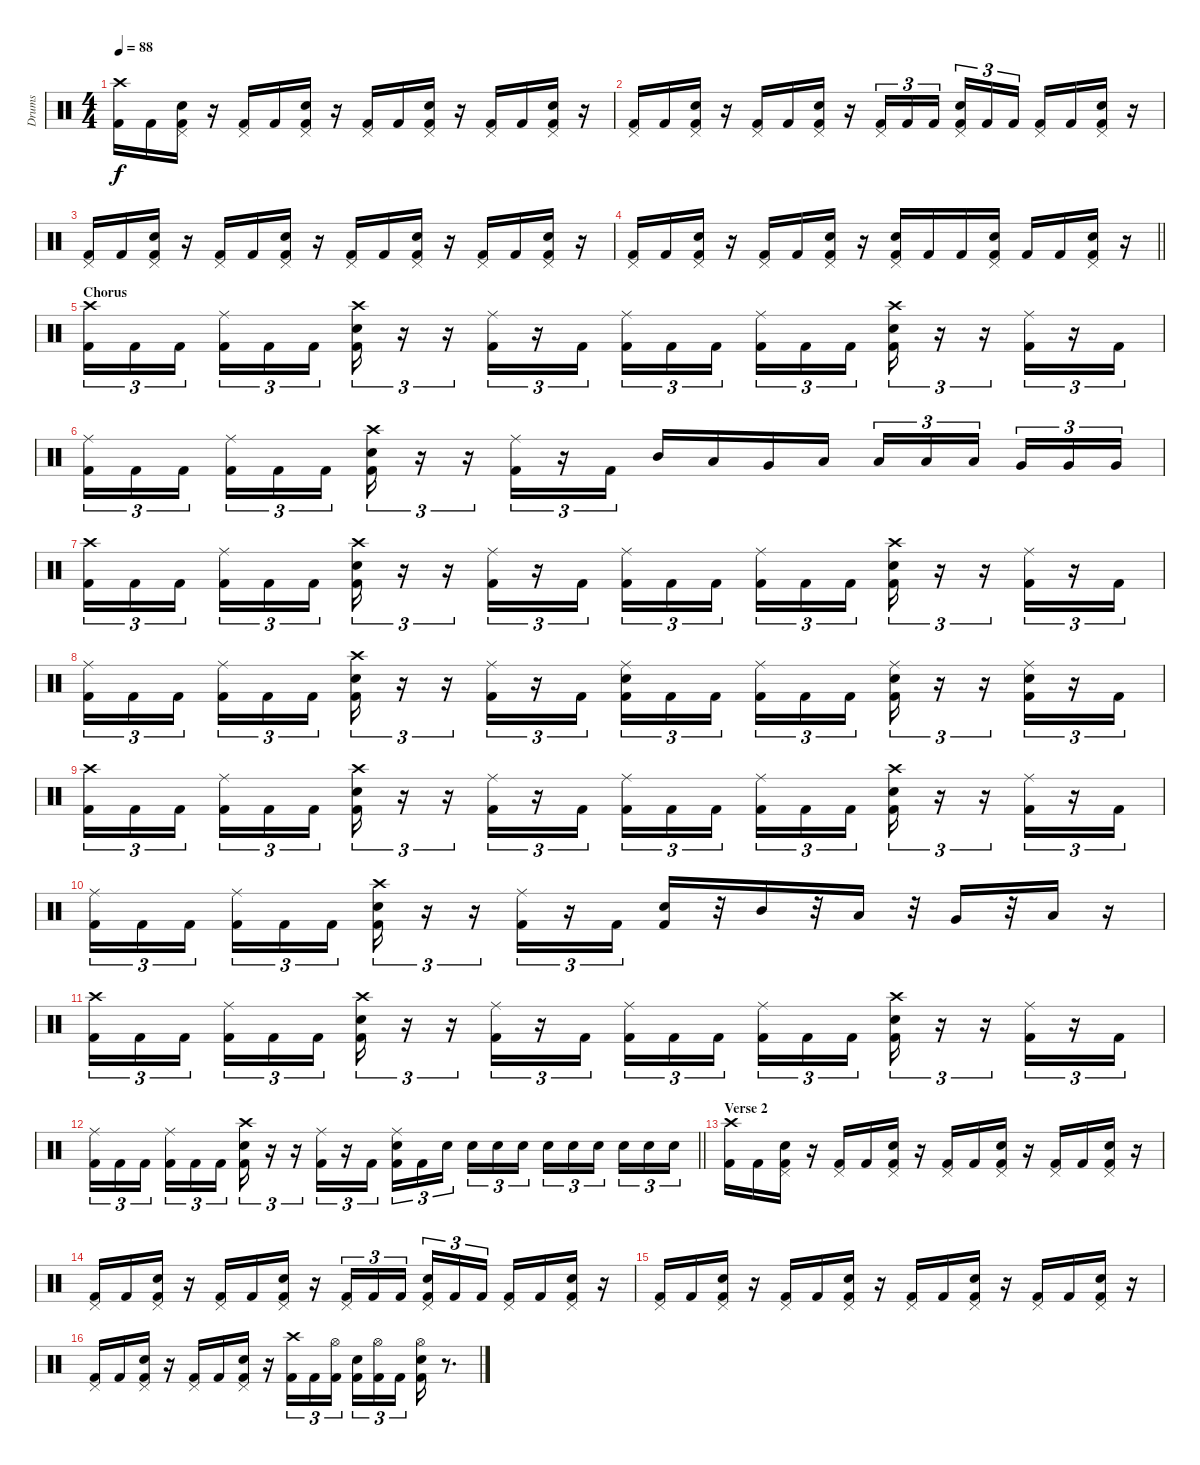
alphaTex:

\track ("Drums" "Drums") {instrument percussion}
\staff {score}
\articulation defaults
\ts (4 4)
\tempo 88
\clef neutral
\ks c
("Crash high (hit)" "Kick (hit) 2").16{dy f} "Kick (hit) 2".16 ("Pedal Hi-Hat (hit)" "Snare (hit) 2" "Kick (hit) 2").16 r.16 ("Pedal Hi-Hat (hit)" "Kick (hit) 2").16 "Kick (hit) 2".16 ("Pedal Hi-Hat (hit)" "Snare (hit) 2" "Kick (hit) 2").16 r.16 ("Pedal Hi-Hat (hit)" "Kick (hit) 2").16 "Kick (hit) 2".16 ("Pedal Hi-Hat (hit)" "Snare (hit) 2" "Kick (hit) 2").16 r.16 ("Pedal Hi-Hat (hit)" "Kick (hit) 2").16 "Kick (hit) 2".16 ("Pedal Hi-Hat (hit)" "Snare (hit) 2" "Kick (hit) 2").16 r.16 |
("Pedal Hi-Hat (hit)" "Kick (hit) 2").16 "Kick (hit) 2".16 ("Pedal Hi-Hat (hit)" "Snare (hit) 2" "Kick (hit) 2").16 r.16 ("Pedal Hi-Hat (hit)" "Kick (hit) 2").16 "Kick (hit) 2".16 ("Pedal Hi-Hat (hit)" "Snare (hit) 2" "Kick (hit) 2").16 r.16 ("Pedal Hi-Hat (hit)" "Kick (hit) 2").16{tu (3 2)} "Kick (hit) 2".16{tu (3 2)} "Kick (hit) 2".16{tu (3 2) beam splitsecondary} ("Pedal Hi-Hat (hit)" "Snare (hit) 2" "Kick (hit) 2").16{tu (3 2)} "Kick (hit) 2".16{tu (3 2)} "Kick (hit) 2".16{tu (3 2)} ("Pedal Hi-Hat (hit)" "Kick (hit) 2").16 "Kick (hit) 2".16 ("Pedal Hi-Hat (hit)" "Snare (hit) 2" "Kick (hit) 2").16 r.16 |
("Pedal Hi-Hat (hit)" "Kick (hit) 2").16 "Kick (hit) 2".16 ("Pedal Hi-Hat (hit)" "Snare (hit) 2" "Kick (hit) 2").16 r.16 ("Pedal Hi-Hat (hit)" "Kick (hit) 2").16 "Kick (hit) 2".16 ("Pedal Hi-Hat (hit)" "Snare (hit) 2" "Kick (hit) 2").16 r.16 ("Pedal Hi-Hat (hit)" "Kick (hit) 2").16 "Kick (hit) 2".16 ("Pedal Hi-Hat (hit)" "Snare (hit) 2" "Kick (hit) 2").16 r.16 ("Pedal Hi-Hat (hit)" "Kick (hit) 2").16 "Kick (hit) 2".16 ("Pedal Hi-Hat (hit)" "Snare (hit) 2" "Kick (hit) 2").16 r.16 |
\barLineRight lightlight
("Pedal Hi-Hat (hit)" "Kick (hit) 2").16 "Kick (hit) 2".16 ("Pedal Hi-Hat (hit)" "Snare (hit) 2" "Kick (hit) 2").16 r.16 ("Pedal Hi-Hat (hit)" "Kick (hit) 2").16 "Kick (hit) 2".16 ("Pedal Hi-Hat (hit)" "Snare (hit) 2" "Kick (hit) 2").16 r.16 ("Pedal Hi-Hat (hit)" "Snare (hit) 2" "Kick (hit) 2").16 "Kick (hit) 2".16 "Kick (hit) 2".16 ("Pedal Hi-Hat (hit)" "Snare (hit) 2" "Kick (hit) 2").16 "Kick (hit) 2".16 "Kick (hit) 2".16 ("Pedal Hi-Hat (hit)" "Snare (hit) 2" "Kick (hit) 2").16 r.16 |
\section ("" "Chorus")
("Crash high (hit)" "Kick (hit) 2").16{tu (3 2)} "Kick (hit) 2".16{tu (3 2)} "Kick (hit) 2".16{tu (3 2) beam splitsecondary} ("Ride (middle)" "Kick (hit) 2").16{tu (3 2)} "Kick (hit) 2".16{tu (3 2)} "Kick (hit) 2".16{tu (3 2)} ("Crash high (hit)" "Snare (hit) 2" "Kick (hit) 2").16{tu (3 2)} r.16{tu (3 2)} r.16{tu (3 2)} ("Ride (middle)" "Kick (hit) 2").16{tu (3 2)} r.16{tu (3 2)} "Kick (hit) 2".16{tu (3 2)} ("Ride (middle)" "Kick (hit) 2").16{tu (3 2)} "Kick (hit) 2".16{tu (3 2)} "Kick (hit) 2".16{tu (3 2) beam splitsecondary} ("Ride (middle)" "Kick (hit) 2").16{tu (3 2)} "Kick (hit) 2".16{tu (3 2)} "Kick (hit) 2".16{tu (3 2)} ("Crash high (hit)" "Snare (hit) 2" "Kick (hit) 2").16{tu (3 2)} r.16{tu (3 2)} r.16{tu (3 2)} ("Ride (middle)" "Kick (hit) 2").16{tu (3 2)} r.16{tu (3 2)} "Kick (hit) 2".16{tu (3 2)} |
("Ride (middle)" "Kick (hit) 2").16{tu (3 2)} "Kick (hit) 2".16{tu (3 2)} "Kick (hit) 2".16{tu (3 2) beam splitsecondary} ("Ride (middle)" "Kick (hit) 2").16{tu (3 2)} "Kick (hit) 2".16{tu (3 2)} "Kick (hit) 2".16{tu (3 2)} ("Crash high (hit)" "Snare (hit) 2" "Kick (hit) 2").16{tu (3 2)} r.16{tu (3 2)} r.16{tu (3 2)} ("Ride (middle)" "Kick (hit) 2").16{tu (3 2)} r.16{tu (3 2)} "Kick (hit) 2".16{tu (3 2)} "Mid Tom (hit)".16 "Low Tom (hit)".16 "Very Low Tom (hit)".16 "Low Tom (hit)".16 "Low Tom (hit)".16{tu (3 2)} "Low Tom (hit)".16{tu (3 2)} "Low Tom (hit)".16{tu (3 2) beam splitsecondary} "Very Low Tom (hit)".16{tu (3 2)} "Very Low Tom (hit)".16{tu (3 2)} "Very Low Tom (hit)".16{tu (3 2)} |
("Crash high (hit)" "Kick (hit) 2").16{tu (3 2)} "Kick (hit) 2".16{tu (3 2)} "Kick (hit) 2".16{tu (3 2) beam splitsecondary} ("Ride (middle)" "Kick (hit) 2").16{tu (3 2)} "Kick (hit) 2".16{tu (3 2)} "Kick (hit) 2".16{tu (3 2)} ("Crash high (hit)" "Snare (hit) 2" "Kick (hit) 2").16{tu (3 2)} r.16{tu (3 2)} r.16{tu (3 2)} ("Ride (middle)" "Kick (hit) 2").16{tu (3 2)} r.16{tu (3 2)} "Kick (hit) 2".16{tu (3 2)} ("Ride (middle)" "Kick (hit) 2").16{tu (3 2)} "Kick (hit) 2".16{tu (3 2)} "Kick (hit) 2".16{tu (3 2) beam splitsecondary} ("Ride (middle)" "Kick (hit) 2").16{tu (3 2)} "Kick (hit) 2".16{tu (3 2)} "Kick (hit) 2".16{tu (3 2)} ("Crash high (hit)" "Snare (hit) 2" "Kick (hit) 2").16{tu (3 2)} r.16{tu (3 2)} r.16{tu (3 2)} ("Ride (middle)" "Kick (hit) 2").16{tu (3 2)} r.16{tu (3 2)} "Kick (hit) 2".16{tu (3 2)} |
("Ride (middle)" "Kick (hit) 2").16{tu (3 2)} "Kick (hit) 2".16{tu (3 2)} "Kick (hit) 2".16{tu (3 2) beam splitsecondary} ("Ride (middle)" "Kick (hit) 2").16{tu (3 2)} "Kick (hit) 2".16{tu (3 2)} "Kick (hit) 2".16{tu (3 2)} ("Crash high (hit)" "Snare (hit) 2" "Kick (hit) 2").16{tu (3 2)} r.16{tu (3 2)} r.16{tu (3 2)} ("Ride (middle)" "Kick (hit) 2").16{tu (3 2)} r.16{tu (3 2)} "Kick (hit) 2".16{tu (3 2)} ("Ride (middle)" "Snare (hit) 2" "Kick (hit) 2").16{tu (3 2)} "Kick (hit) 2".16{tu (3 2)} "Kick (hit) 2".16{tu (3 2) beam splitsecondary} ("Ride (middle)" "Kick (hit) 2").16{tu (3 2)} "Kick (hit) 2".16{tu (3 2)} "Kick (hit) 2".16{tu (3 2)} ("Ride (middle)" "Snare (hit) 2" "Kick (hit) 2").16{tu (3 2)} r.16{tu (3 2)} r.16{tu (3 2)} ("Ride (middle)" "Snare (hit) 2" "Kick (hit) 2").16{tu (3 2)} r.16{tu (3 2)} "Kick (hit) 2".16{tu (3 2)} |
("Crash high (hit)" "Kick (hit) 2").16{tu (3 2)} "Kick (hit) 2".16{tu (3 2)} "Kick (hit) 2".16{tu (3 2) beam splitsecondary} ("Ride (middle)" "Kick (hit) 2").16{tu (3 2)} "Kick (hit) 2".16{tu (3 2)} "Kick (hit) 2".16{tu (3 2)} ("Crash high (hit)" "Snare (hit) 2" "Kick (hit) 2").16{tu (3 2)} r.16{tu (3 2)} r.16{tu (3 2)} ("Ride (middle)" "Kick (hit) 2").16{tu (3 2)} r.16{tu (3 2)} "Kick (hit) 2".16{tu (3 2)} ("Ride (middle)" "Kick (hit) 2").16{tu (3 2)} "Kick (hit) 2".16{tu (3 2)} "Kick (hit) 2".16{tu (3 2) beam splitsecondary} ("Ride (middle)" "Kick (hit) 2").16{tu (3 2)} "Kick (hit) 2".16{tu (3 2)} "Kick (hit) 2".16{tu (3 2)} ("Crash high (hit)" "Snare (hit) 2" "Kick (hit) 2").16{tu (3 2)} r.16{tu (3 2)} r.16{tu (3 2)} ("Ride (middle)" "Kick (hit) 2").16{tu (3 2)} r.16{tu (3 2)} "Kick (hit) 2".16{tu (3 2)} |
("Ride (middle)" "Kick (hit) 2").16{tu (3 2)} "Kick (hit) 2".16{tu (3 2)} "Kick (hit) 2".16{tu (3 2) beam splitsecondary} ("Ride (middle)" "Kick (hit) 2").16{tu (3 2)} "Kick (hit) 2".16{tu (3 2)} "Kick (hit) 2".16{tu (3 2)} ("Crash high (hit)" "Snare (hit) 2" "Kick (hit) 2").16{tu (3 2)} r.16{tu (3 2)} r.16{tu (3 2)} ("Ride (middle)" "Kick (hit) 2").16{tu (3 2)} r.16{tu (3 2)} "Kick (hit) 2".16{tu (3 2)} ("Snare (hit) 2" "Kick (hit) 2").16 r.32 "Mid Tom (hit)".16 r.32 "Low Tom (hit)".16 r.32 "Very Low Tom (hit)".16 r.32 "Low Floor Tom (hit)".16 r.16 |
("Crash high (hit)" "Kick (hit) 2").16{tu (3 2)} "Kick (hit) 2".16{tu (3 2)} "Kick (hit) 2".16{tu (3 2) beam splitsecondary} ("Ride (middle)" "Kick (hit) 2").16{tu (3 2)} "Kick (hit) 2".16{tu (3 2)} "Kick (hit) 2".16{tu (3 2)} ("Crash high (hit)" "Snare (hit) 2" "Kick (hit) 2").16{tu (3 2)} r.16{tu (3 2)} r.16{tu (3 2)} ("Ride (middle)" "Kick (hit) 2").16{tu (3 2)} r.16{tu (3 2)} "Kick (hit) 2".16{tu (3 2)} ("Ride (middle)" "Kick (hit) 2").16{tu (3 2)} "Kick (hit) 2".16{tu (3 2)} "Kick (hit) 2".16{tu (3 2) beam splitsecondary} ("Ride (middle)" "Kick (hit) 2").16{tu (3 2)} "Kick (hit) 2".16{tu (3 2)} "Kick (hit) 2".16{tu (3 2)} ("Crash high (hit)" "Snare (hit) 2" "Kick (hit) 2").16{tu (3 2)} r.16{tu (3 2)} r.16{tu (3 2)} ("Ride (middle)" "Kick (hit) 2").16{tu (3 2)} r.16{tu (3 2)} "Kick (hit) 2".16{tu (3 2)} |
\barLineRight lightlight
("Ride (middle)" "Kick (hit) 2").16{tu (3 2)} "Kick (hit) 2".16{tu (3 2)} "Kick (hit) 2".16{tu (3 2) beam splitsecondary} ("Ride (middle)" "Kick (hit) 2").16{tu (3 2)} "Kick (hit) 2".16{tu (3 2)} "Kick (hit) 2".16{tu (3 2)} ("Crash high (hit)" "Snare (hit) 2" "Kick (hit) 2").16{tu (3 2)} r.16{tu (3 2)} r.16{tu (3 2)} ("Ride (middle)" "Kick (hit) 2").16{tu (3 2)} r.16{tu (3 2)} "Kick (hit) 2".16{tu (3 2)} ("Ride (middle)" "Snare (hit) 2" "Kick (hit) 2").16{tu (3 2)} "Kick (hit) 2".16{tu (3 2)} "Snare (hit) 2".16{tu (3 2) beam splitsecondary} "Snare (hit) 2".16{tu (3 2)} "Snare (hit) 2".16{tu (3 2)} "Snare (hit) 2".16{tu (3 2)} "Snare (hit) 2".16{tu (3 2)} "Snare (hit) 2".16{tu (3 2)} "Snare (hit) 2".16{tu (3 2) beam splitsecondary} "Snare (hit) 2".16{tu (3 2)} "Snare (hit) 2".16{tu (3 2)} "Snare (hit) 2".16{tu (3 2)} |
\section ("" "Verse 2")
("Crash high (hit)" "Kick (hit) 2").16 "Kick (hit) 2".16 ("Pedal Hi-Hat (hit)" "Snare (hit) 2" "Kick (hit) 2").16 r.16 ("Pedal Hi-Hat (hit)" "Kick (hit) 2").16 "Kick (hit) 2".16 ("Pedal Hi-Hat (hit)" "Snare (hit) 2" "Kick (hit) 2").16 r.16 ("Pedal Hi-Hat (hit)" "Kick (hit) 2").16 "Kick (hit) 2".16 ("Pedal Hi-Hat (hit)" "Snare (hit) 2" "Kick (hit) 2").16 r.16 ("Pedal Hi-Hat (hit)" "Kick (hit) 2").16 "Kick (hit) 2".16 ("Pedal Hi-Hat (hit)" "Snare (hit) 2" "Kick (hit) 2").16 r.16 |
("Pedal Hi-Hat (hit)" "Kick (hit) 2").16 "Kick (hit) 2".16 ("Pedal Hi-Hat (hit)" "Snare (hit) 2" "Kick (hit) 2").16 r.16 ("Pedal Hi-Hat (hit)" "Kick (hit) 2").16 "Kick (hit) 2".16 ("Pedal Hi-Hat (hit)" "Snare (hit) 2" "Kick (hit) 2").16 r.16 ("Pedal Hi-Hat (hit)" "Kick (hit) 2").16{tu (3 2)} "Kick (hit) 2".16{tu (3 2)} "Kick (hit) 2".16{tu (3 2) beam splitsecondary} ("Pedal Hi-Hat (hit)" "Snare (hit) 2" "Kick (hit) 2").16{tu (3 2)} "Kick (hit) 2".16{tu (3 2)} "Kick (hit) 2".16{tu (3 2)} ("Pedal Hi-Hat (hit)" "Kick (hit) 2").16 "Kick (hit) 2".16 ("Pedal Hi-Hat (hit)" "Snare (hit) 2" "Kick (hit) 2").16 r.16 |
("Pedal Hi-Hat (hit)" "Kick (hit) 2").16 "Kick (hit) 2".16 ("Pedal Hi-Hat (hit)" "Snare (hit) 2" "Kick (hit) 2").16 r.16 ("Pedal Hi-Hat (hit)" "Kick (hit) 2").16 "Kick (hit) 2".16 ("Pedal Hi-Hat (hit)" "Snare (hit) 2" "Kick (hit) 2").16 r.16 ("Pedal Hi-Hat (hit)" "Kick (hit) 2").16 "Kick (hit) 2".16 ("Pedal Hi-Hat (hit)" "Snare (hit) 2" "Kick (hit) 2").16 r.16 ("Pedal Hi-Hat (hit)" "Kick (hit) 2").16 "Kick (hit) 2".16 ("Pedal Hi-Hat (hit)" "Snare (hit) 2" "Kick (hit) 2").16 r.16 |
("Pedal Hi-Hat (hit)" "Kick (hit) 2").16 "Kick (hit) 2".16 ("Pedal Hi-Hat (hit)" "Snare (hit) 2" "Kick (hit) 2").16 r.16 ("Pedal Hi-Hat (hit)" "Kick (hit) 2").16 "Kick (hit) 2".16 ("Pedal Hi-Hat (hit)" "Snare (hit) 2" "Kick (hit) 2").16 r.16 ("Crash high (hit)" "Kick (hit) 2").16{tu (3 2)} "Kick (hit) 2".16{tu (3 2)} ("Hi-Hat (open)" "Kick (hit) 2").16{tu (3 2) beam splitsecondary} ("Snare (hit) 2" "Kick (hit) 2").16{tu (3 2)} ("Hi-Hat (open)" "Kick (hit) 2").16{tu (3 2)} "Kick (hit) 2".16{tu (3 2)} ("Hi-Hat (open)" "Snare (hit) 2" "Kick (hit) 2").16 r.8{d}
